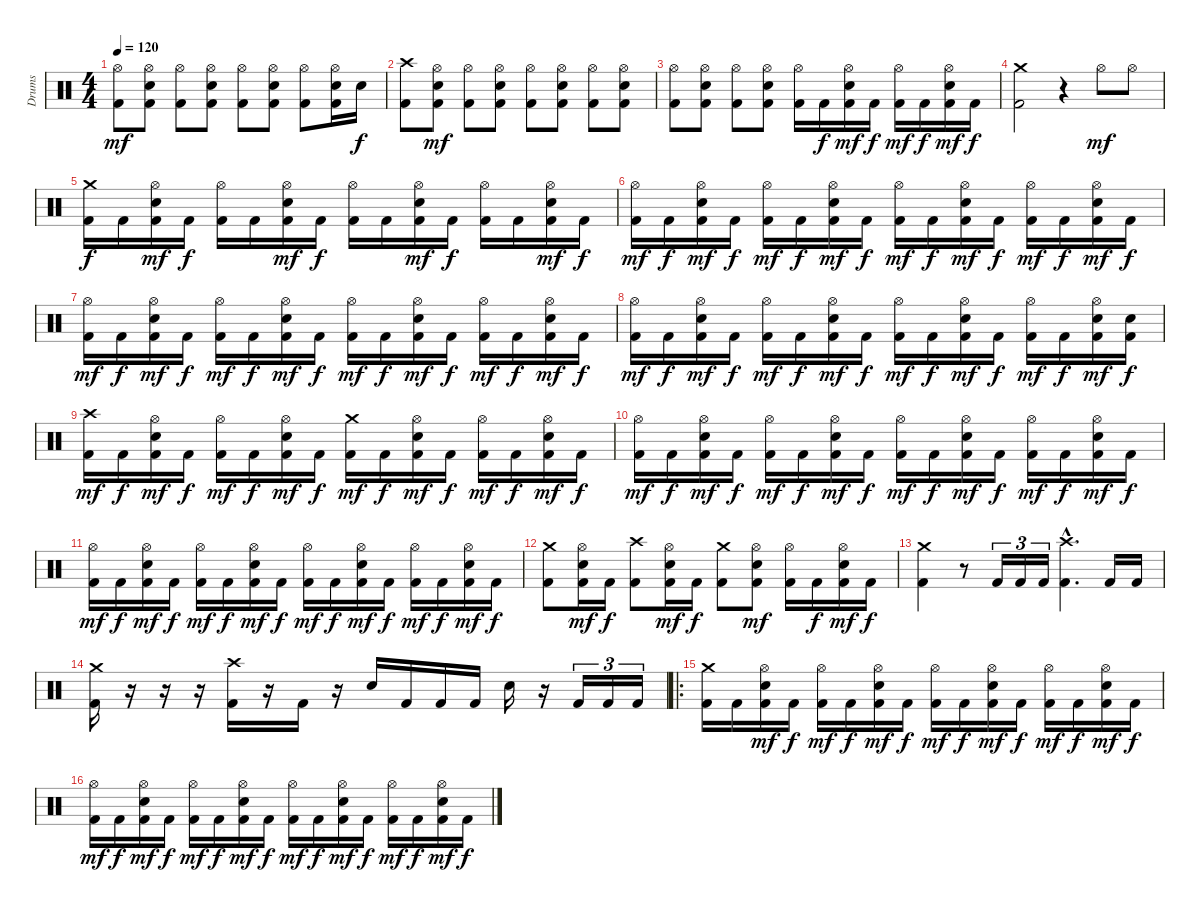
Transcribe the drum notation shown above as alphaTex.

\track ("Drums" "Drums") {instrument percussion}
\staff {score}
\articulation defaults
\ts (4 4)
\tempo 120
\clef neutral
\ks c
("Hi-Hat (open)" "Kick (hit) 2").8{dy mf} ("Hi-Hat (open)" "Snare (hit) 2" "Kick (hit) 2").8 ("Hi-Hat (open)" "Kick (hit) 2").8 ("Hi-Hat (open)" "Snare (hit) 2" "Kick (hit) 2").8 ("Hi-Hat (open)" "Kick (hit) 2").8 ("Hi-Hat (open)" "Snare (hit) 2" "Kick (hit) 2").8 ("Hi-Hat (open)" "Kick (hit) 2").8 ("Hi-Hat (open)" "Snare (hit) 2" "Kick (hit) 2").16 "Snare (hit) 2".16{dy f} |
("Crash high (hit)" "Kick (hit) 2").8 ("Hi-Hat (open)" "Snare (hit) 2" "Kick (hit) 2").8{dy mf} ("Hi-Hat (open)" "Kick (hit) 2").8 ("Hi-Hat (open)" "Snare (hit) 2" "Kick (hit) 2").8 ("Hi-Hat (open)" "Kick (hit) 2").8 ("Hi-Hat (open)" "Snare (hit) 2" "Kick (hit) 2").8 ("Hi-Hat (open)" "Kick (hit) 2").8 ("Hi-Hat (open)" "Snare (hit) 2" "Kick (hit) 2").8 |
("Hi-Hat (open)" "Kick (hit) 2").8 ("Hi-Hat (open)" "Snare (hit) 2" "Kick (hit) 2").8 ("Hi-Hat (open)" "Kick (hit) 2").8 ("Hi-Hat (open)" "Snare (hit) 2" "Kick (hit) 2").8 ("Hi-Hat (open)" "Kick (hit) 2").16 "Kick (hit) 2".16{dy f} ("Hi-Hat (open)" "Snare (hit) 2" "Kick (hit) 2").16{dy mf} "Kick (hit) 2".16{dy f} ("Hi-Hat (open)" "Kick (hit) 2").16{dy mf} "Kick (hit) 2".16{dy f} ("Hi-Hat (open)" "Snare (hit) 2" "Kick (hit) 2").16{dy mf} "Kick (hit) 2".16{dy f} |
("Crash medium (hit)" "Kick (hit) 2").2 r.4 "Hi-Hat (open)".8{dy mf} "Hi-Hat (open)".8 |
("Crash medium (hit)" "Kick (hit) 2").16{dy f} "Kick (hit) 2".16 ("Hi-Hat (open)" "Snare (hit) 2" "Kick (hit) 2").16{dy mf} "Kick (hit) 2".16{dy f} ("Hi-Hat (open)" "Kick (hit) 2").16 "Kick (hit) 2".16 ("Hi-Hat (open)" "Snare (hit) 2" "Kick (hit) 2").16{dy mf} "Kick (hit) 2".16{dy f} ("Hi-Hat (open)" "Kick (hit) 2").16 "Kick (hit) 2".16 ("Hi-Hat (open)" "Snare (hit) 2" "Kick (hit) 2").16{dy mf} "Kick (hit) 2".16{dy f} ("Hi-Hat (open)" "Kick (hit) 2").16 "Kick (hit) 2".16 ("Hi-Hat (open)" "Snare (hit) 2" "Kick (hit) 2").16{dy mf} "Kick (hit) 2".16{dy f} |
("Hi-Hat (open)" "Kick (hit) 2").16{dy mf} "Kick (hit) 2".16{dy f} ("Hi-Hat (open)" "Snare (hit) 2" "Kick (hit) 2").16{dy mf} "Kick (hit) 2".16{dy f} ("Hi-Hat (open)" "Kick (hit) 2").16{dy mf} "Kick (hit) 2".16{dy f} ("Hi-Hat (open)" "Snare (hit) 2" "Kick (hit) 2").16{dy mf} "Kick (hit) 2".16{dy f} ("Hi-Hat (open)" "Kick (hit) 2").16{dy mf} "Kick (hit) 2".16{dy f} ("Hi-Hat (open)" "Snare (hit) 2" "Kick (hit) 2").16{dy mf} "Kick (hit) 2".16{dy f} ("Hi-Hat (open)" "Kick (hit) 2").16{dy mf} "Kick (hit) 2".16{dy f} ("Hi-Hat (open)" "Snare (hit) 2" "Kick (hit) 2").16{dy mf} "Kick (hit) 2".16{dy f} |
("Hi-Hat (open)" "Kick (hit) 2").16{dy mf} "Kick (hit) 2".16{dy f} ("Hi-Hat (open)" "Snare (hit) 2" "Kick (hit) 2").16{dy mf} "Kick (hit) 2".16{dy f} ("Hi-Hat (open)" "Kick (hit) 2").16{dy mf} "Kick (hit) 2".16{dy f} ("Hi-Hat (open)" "Snare (hit) 2" "Kick (hit) 2").16{dy mf} "Kick (hit) 2".16{dy f} ("Hi-Hat (open)" "Kick (hit) 2").16{dy mf} "Kick (hit) 2".16{dy f} ("Hi-Hat (open)" "Snare (hit) 2" "Kick (hit) 2").16{dy mf} "Kick (hit) 2".16{dy f} ("Hi-Hat (open)" "Kick (hit) 2").16{dy mf} "Kick (hit) 2".16{dy f} ("Hi-Hat (open)" "Snare (hit) 2" "Kick (hit) 2").16{dy mf} "Kick (hit) 2".16{dy f} |
("Hi-Hat (open)" "Kick (hit) 2").16{dy mf} "Kick (hit) 2".16{dy f} ("Hi-Hat (open)" "Snare (hit) 2" "Kick (hit) 2").16{dy mf} "Kick (hit) 2".16{dy f} ("Hi-Hat (open)" "Kick (hit) 2").16{dy mf} "Kick (hit) 2".16{dy f} ("Hi-Hat (open)" "Snare (hit) 2" "Kick (hit) 2").16{dy mf} "Kick (hit) 2".16{dy f} ("Hi-Hat (open)" "Kick (hit) 2").16{dy mf} "Kick (hit) 2".16{dy f} ("Hi-Hat (open)" "Snare (hit) 2" "Kick (hit) 2").16{dy mf} "Kick (hit) 2".16{dy f} ("Hi-Hat (open)" "Kick (hit) 2").16{dy mf} "Kick (hit) 2".16{dy f} ("Hi-Hat (open)" "Snare (hit) 2" "Kick (hit) 2").16{dy mf} ("Snare (hit) 2" "Kick (hit) 2").16{dy f} |
("Crash high (hit)" "Kick (hit) 2").16{dy mf} "Kick (hit) 2".16{dy f} ("Hi-Hat (open)" "Snare (hit) 2" "Kick (hit) 2").16{dy mf} "Kick (hit) 2".16{dy f} ("Hi-Hat (open)" "Kick (hit) 2").16{dy mf} "Kick (hit) 2".16{dy f} ("Hi-Hat (open)" "Snare (hit) 2" "Kick (hit) 2").16{dy mf} "Kick (hit) 2".16{dy f} ("Crash medium (hit)" "Kick (hit) 2").16{dy mf} "Kick (hit) 2".16{dy f} ("Hi-Hat (open)" "Snare (hit) 2" "Kick (hit) 2").16{dy mf} "Kick (hit) 2".16{dy f} ("Hi-Hat (open)" "Kick (hit) 2").16{dy mf} "Kick (hit) 2".16{dy f} ("Hi-Hat (open)" "Snare (hit) 2" "Kick (hit) 2").16{dy mf} "Kick (hit) 2".16{dy f} |
("Hi-Hat (open)" "Kick (hit) 2").16{dy mf} "Kick (hit) 2".16{dy f} ("Hi-Hat (open)" "Snare (hit) 2" "Kick (hit) 2").16{dy mf} "Kick (hit) 2".16{dy f} ("Hi-Hat (open)" "Kick (hit) 2").16{dy mf} "Kick (hit) 2".16{dy f} ("Hi-Hat (open)" "Snare (hit) 2" "Kick (hit) 2").16{dy mf} "Kick (hit) 2".16{dy f} ("Hi-Hat (open)" "Kick (hit) 2").16{dy mf} "Kick (hit) 2".16{dy f} ("Hi-Hat (open)" "Snare (hit) 2" "Kick (hit) 2").16{dy mf} "Kick (hit) 2".16{dy f} ("Hi-Hat (open)" "Kick (hit) 2").16{dy mf} "Kick (hit) 2".16{dy f} ("Hi-Hat (open)" "Snare (hit) 2" "Kick (hit) 2").16{dy mf} "Kick (hit) 2".16{dy f} |
("Hi-Hat (open)" "Kick (hit) 2").16{dy mf} "Kick (hit) 2".16{dy f} ("Hi-Hat (open)" "Snare (hit) 2" "Kick (hit) 2").16{dy mf} "Kick (hit) 2".16{dy f} ("Hi-Hat (open)" "Kick (hit) 2").16{dy mf} "Kick (hit) 2".16{dy f} ("Hi-Hat (open)" "Snare (hit) 2" "Kick (hit) 2").16{dy mf} "Kick (hit) 2".16{dy f} ("Hi-Hat (open)" "Kick (hit) 2").16{dy mf} "Kick (hit) 2".16{dy f} ("Hi-Hat (open)" "Snare (hit) 2" "Kick (hit) 2").16{dy mf} "Kick (hit) 2".16{dy f} ("Hi-Hat (open)" "Kick (hit) 2").16{dy mf} "Kick (hit) 2".16{dy f} ("Hi-Hat (open)" "Snare (hit) 2" "Kick (hit) 2").16{dy mf} "Kick (hit) 2".16{dy f} |
("Crash medium (hit)" "Kick (hit) 2").8 ("Hi-Hat (open)" "Snare (hit) 2" "Kick (hit) 2").16{dy mf} "Kick (hit) 2".16{dy f} ("Crash high (hit)" "Kick (hit) 2").8 ("Hi-Hat (open)" "Snare (hit) 2" "Kick (hit) 2").16{dy mf} "Kick (hit) 2".16{dy f} ("Crash medium (hit)" "Kick (hit) 2").8 ("Hi-Hat (open)" "Snare (hit) 2" "Kick (hit) 2").8{dy mf} ("Hi-Hat (open)" "Kick (hit) 2").16 "Kick (hit) 2".16{dy f} ("Hi-Hat (open)" "Snare (hit) 2" "Kick (hit) 2").16{dy mf} "Kick (hit) 2".16{dy f} |
("Crash medium (hit)" "Kick (hit) 2").4 r.8 "Kick (hit) 2".16{tu (3 2)} "Kick (hit) 2".16{tu (3 2)} "Kick (hit) 2".16{tu (3 2)} ("Crash high (hit)"{hac} "Kick (hit) 2"{hac}).4{d} "Kick (hit) 2".16 "Kick (hit) 2".16 |
("Crash medium (hit)" "Kick (hit) 2").16 r.16 r.16 r.16 ("Crash high (hit)" "Kick (hit) 2").16 r.16 "Kick (hit) 2".16 r.16 "Snare (hit) 2".16 "Kick (hit) 2".16 "Kick (hit) 2".16 "Kick (hit) 2".16 "Snare (hit) 2".16 r.16 "Kick (hit) 2".16{tu (3 2)} "Kick (hit) 2".16{tu (3 2)} "Kick (hit) 2".16{tu (3 2)} |
\ro
("Crash medium (hit)" "Kick (hit) 2").16 "Kick (hit) 2".16 ("Hi-Hat (open)" "Snare (hit) 2" "Kick (hit) 2").16{dy mf} "Kick (hit) 2".16{dy f} ("Hi-Hat (open)" "Kick (hit) 2").16{dy mf} "Kick (hit) 2".16{dy f} ("Hi-Hat (open)" "Snare (hit) 2" "Kick (hit) 2").16{dy mf} "Kick (hit) 2".16{dy f} ("Hi-Hat (open)" "Kick (hit) 2").16{dy mf} "Kick (hit) 2".16{dy f} ("Hi-Hat (open)" "Snare (hit) 2" "Kick (hit) 2").16{dy mf} "Kick (hit) 2".16{dy f} ("Hi-Hat (open)" "Kick (hit) 2").16{dy mf} "Kick (hit) 2".16{dy f} ("Hi-Hat (open)" "Snare (hit) 2" "Kick (hit) 2").16{dy mf} "Kick (hit) 2".16{dy f} |
("Hi-Hat (open)" "Kick (hit) 2").16{dy mf} "Kick (hit) 2".16{dy f} ("Hi-Hat (open)" "Snare (hit) 2" "Kick (hit) 2").16{dy mf} "Kick (hit) 2".16{dy f} ("Hi-Hat (open)" "Kick (hit) 2").16{dy mf} "Kick (hit) 2".16{dy f} ("Hi-Hat (open)" "Snare (hit) 2" "Kick (hit) 2").16{dy mf} "Kick (hit) 2".16{dy f} ("Hi-Hat (open)" "Kick (hit) 2").16{dy mf} "Kick (hit) 2".16{dy f} ("Hi-Hat (open)" "Snare (hit) 2" "Kick (hit) 2").16{dy mf} "Kick (hit) 2".16{dy f} ("Hi-Hat (open)" "Kick (hit) 2").16{dy mf} "Kick (hit) 2".16{dy f} ("Hi-Hat (open)" "Snare (hit) 2" "Kick (hit) 2").16{dy mf} "Kick (hit) 2".16{dy f}
